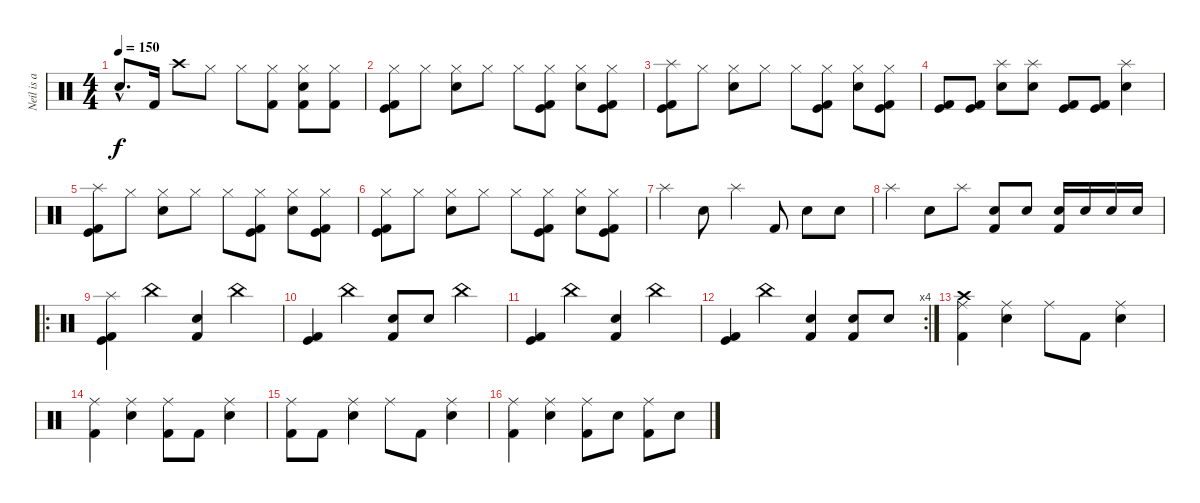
\track ("Neil is a Drum God!!!" "Neil is a ") {instrument percussion}
\staff {score}
\articulation defaults
\ts (4 4)
\tempo 150
\clef neutral
\ks c "Snare (hit) 2"{hac}.8{d dy f} "Kick (hit) 2".16 "Crash high (hit)".8 "Hi-Hat (closed)".8 "Hi-Hat (closed)".8
("Hi-Hat (closed)" "Kick (hit) 2").8 ("Hi-Hat (closed)" "Snare (hit) 2" "Kick (hit) 2").8 ("Hi-Hat (closed)" "Kick (hit) 2").8 |
("Hi-Hat (closed)" "Kick (hit)" "Kick (hit) 2").8 "Hi-Hat (closed)".8 ("Hi-Hat (closed)" "Snare (hit) 2").8 "Hi-Hat (closed)".8 "Hi-Hat (closed)".8 ("Hi-Hat (closed)" "Kick (hit)" "Kick (hit) 2").8 ("Hi-Hat (closed)" "Snare (hit) 2").8 ("Hi-Hat (closed)" "Kick (hit)" "Kick (hit) 2").8 |
("Splash (hit)" "Kick (hit)" "Kick (hit) 2").8 "Hi-Hat (closed)".8 ("Hi-Hat (closed)" "Snare (hit) 2").8 "Hi-Hat (closed)".8 "Hi-Hat (closed)".8 ("Hi-Hat (closed)" "Kick (hit)" "Kick (hit) 2").8 ("Hi-Hat (closed)" "Snare (hit) 2").8 ("Hi-Hat (closed)" "Kick (hit)" "Kick (hit) 2").8 |
("Kick (hit)" "Kick (hit) 2").8 ("Kick (hit)" "Kick (hit) 2").8 ("Splash (hit)" "Snare (hit) 2").8 ("Splash (hit)" "Snare (hit) 2").8 ("Kick (hit)" "Kick (hit) 2").8 ("Kick (hit)" "Kick (hit) 2").8 ("Splash (hit)" "Snare (hit) 2").4 |
("Splash (hit)" "Kick (hit)" "Kick (hit) 2").8 "Hi-Hat (closed)".8 ("Hi-Hat (closed)" "Snare (hit) 2").8 "Hi-Hat (closed)".8 "Hi-Hat (closed)".8 ("Hi-Hat (closed)" "Kick (hit)" "Kick (hit) 2").8 ("Hi-Hat (closed)" "Snare (hit) 2").8 ("Hi-Hat (closed)" "Kick (hit)" "Kick (hit) 2").8 |
("Hi-Hat (closed)" "Kick (hit)" "Kick (hit) 2").8 "Hi-Hat (closed)".8 ("Hi-Hat (closed)" "Snare (hit) 2").8 "Hi-Hat (closed)".8 "Hi-Hat (closed)".8 ("Hi-Hat (closed)" "Kick (hit)" "Kick (hit) 2").8 ("Hi-Hat (closed)" "Snare (hit) 2").8 ("Hi-Hat (closed)" "Kick (hit)" "Kick (hit) 2").8 |
"Splash (hit)".4 "Snare (hit) 2".8 "Splash (hit)".4 "Kick (hit) 2".8 "Snare (hit) 2".8 "Snare (hit) 2".8 |
"Splash (hit)".4 "Snare (hit) 2".8 "Splash (hit)".8 ("Snare (hit) 2" "Kick (hit) 2").8 "Snare (hit) 2".8 ("Snare (hit) 2" "Kick (hit) 2").16 "Snare (hit) 2".16 "Snare (hit) 2".16 "Snare (hit) 2".16 |
\ro
("Splash (hit)" "Kick (hit)" "Kick (hit) 2").4 "China (hit)".4 ("Snare (hit) 2" "Kick (hit) 2").4 "China (hit)".4 |
("Kick (hit)" "Kick (hit) 2").4 "China (hit)".4 ("Snare (hit) 2" "Kick (hit) 2").8 "Snare (hit) 2".8 "China (hit)".4 |
("Kick (hit)" "Kick (hit) 2").4 "China (hit)".4 ("Snare (hit) 2" "Kick (hit) 2").4 "China (hit)".4 |
\rc 4
("Kick (hit)" "Kick (hit) 2").4 "China (hit)".4 ("Snare (hit) 2" "Kick (hit) 2").4 ("Snare (hit) 2" "Kick (hit) 2").8 "Snare (hit) 2".8 |
("Crash high (hit)" "Ride (middle)" "Kick (hit) 2").4 ("Ride (middle)" "Snare (hit) 2").4 "Ride (middle)".8 "Kick (hit) 2".8 ("Ride (middle)" "Snare (hit) 2").4 |
("Ride (middle)" "Kick (hit) 2").4 ("Ride (middle)" "Snare (hit) 2").4 ("Ride (middle)" "Kick (hit) 2").8 "Kick (hit) 2".8 ("Ride (middle)" "Snare (hit) 2").4 |
("Ride (middle)" "Kick (hit) 2").8 "Kick (hit) 2".8 ("Ride (middle)" "Snare (hit) 2").4 "Ride (middle)".8 "Kick (hit) 2".8 ("Ride (middle)" "Snare (hit) 2").4 |
("Ride (middle)" "Kick (hit) 2").4 ("Ride (middle)" "Snare (hit) 2").4 ("Ride (middle)" "Kick (hit) 2").8 "Snare (hit) 2".8 ("Ride (middle)" "Kick (hit) 2").8 "Snare (hit) 2".8
